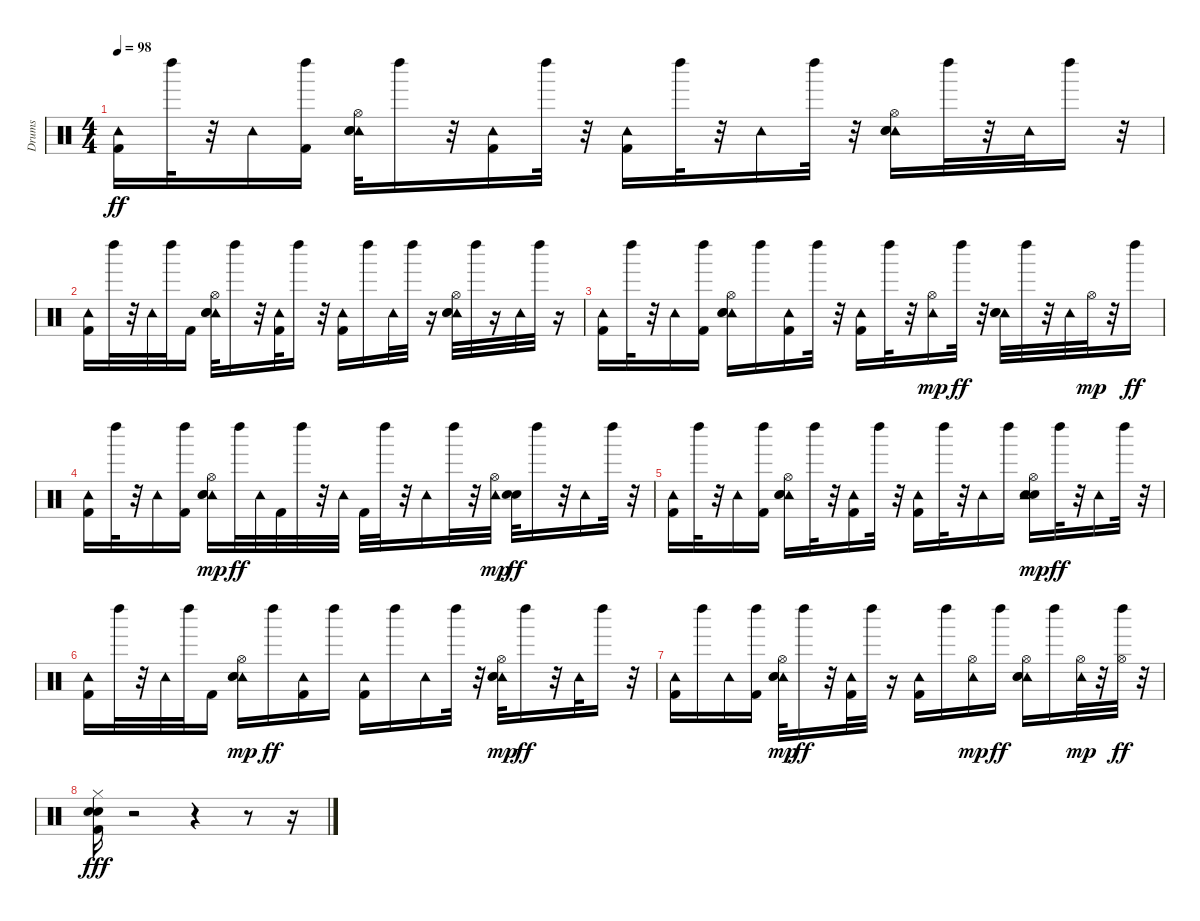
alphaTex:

\track ("Drums" "Drums") {instrument percussion}
\staff {score}
\articulation defaults
\ts (4 4)
\tempo 98
\clef neutral
\ks c
("Tambourine (hit)" "Kick (hit) 2").16{dy ff} "Left Maraca (hit)".32 r.32 "Tambourine (hit)".16 ("Left Maraca (hit)" "Kick (hit) 2").16 ("Tambourine (hit)" "Hi-Hat (open)" "Snare (hit) 2" "Electric Snare (hit)").32 "Left Maraca (hit)".16 r.32 ("Tambourine (hit)" "Kick (hit) 2").16 "Left Maraca (hit)".32 r.32 ("Tambourine (hit)" "Kick (hit) 2").16 "Left Maraca (hit)".32 r.32 "Tambourine (hit)".16 "Left Maraca (hit)".32 r.32 ("Tambourine (hit)" "Hi-Hat (open)" "Electric Snare (hit)" "Snare (hit) 2").16 "Left Maraca (hit)".32 r.32 "Tambourine (hit)".32 "Left Maraca (hit)".16 r.32 |
("Tambourine (hit)" "Kick (hit) 2").16 "Left Maraca (hit)".32 r.32 "Tambourine (hit)".32 "Left Maraca (hit)".32 "Kick (hit) 2".16 ("Tambourine (hit)" "Hi-Hat (open)" "Snare (hit) 2" "Electric Snare (hit)").32 "Left Maraca (hit)".16 r.32 ("Tambourine (hit)" "Kick (hit) 2").32 "Left Maraca (hit)".16 r.32 ("Tambourine (hit)" "Kick (hit) 2").16 "Left Maraca (hit)".16 "Tambourine (hit)".32 "Left Maraca (hit)".32 r.16 ("Tambourine (hit)" "Hi-Hat (open)" "Electric Snare (hit)" "Snare (hit) 2").32 "Left Maraca (hit)".32 r.16 "Tambourine (hit)".32 "Left Maraca (hit)".32 r.16 |
("Tambourine (hit)" "Kick (hit) 2").16 "Left Maraca (hit)".32 r.32 "Tambourine (hit)".16 ("Left Maraca (hit)" "Kick (hit) 2").16 ("Tambourine (hit)" "Snare (hit) 2" "Hi-Hat (open)" "Electric Snare (hit)").16 "Left Maraca (hit)".16 ("Kick (hit) 2" "Tambourine (hit)").16 "Left Maraca (hit)".32 r.32 ("Kick (hit) 2" "Tambourine (hit)").16 "Left Maraca (hit)".32 r.32 ("Tambourine (hit)" "Hi-Hat (open)").16{dy mp} "Left Maraca (hit)".32{dy ff} r.32 ("Tambourine (hit)" "Electric Snare (hit)" "Snare (hit) 2").32 "Left Maraca (hit)".32 r.32 "Tambourine (hit)".32 "Hi-Hat (open)".32{dy mp} r.32 "Left Maraca (hit)".16{dy ff} |
("Tambourine (hit)" "Kick (hit) 2").16 "Left Maraca (hit)".32 r.32 "Tambourine (hit)".16 ("Left Maraca (hit)" "Kick (hit) 2").16 ("Tambourine (hit)" "Electric Snare (hit)" "Snare (hit) 2" "Hi-Hat (open)").16{dy mp} "Left Maraca (hit)".32{dy ff} "Tambourine (hit)".32 "Kick (hit) 2".32 "Left Maraca (hit)".32 r.32 "Tambourine (hit)".32 "Kick (hit) 2".32 "Left Maraca (hit)".32 r.32 "Tambourine (hit)".16 "Left Maraca (hit)".32 r.32 ("Tambourine (hit)" "Hi-Hat (open)").32{dy mp} ("Snare (hit) 2" "Electric Snare (hit)").32{dy ff} "Left Maraca (hit)".16 r.32 "Tambourine (hit)".16 "Left Maraca (hit)".32 r.32 |
("Tambourine (hit)" "Kick (hit) 2").16 "Left Maraca (hit)".32 r.32 "Tambourine (hit)".16 ("Left Maraca (hit)" "Kick (hit) 2").16 ("Tambourine (hit)" "Hi-Hat (open)" "Snare (hit) 2" "Electric Snare (hit)").16 "Left Maraca (hit)".32 r.32 ("Tambourine (hit)" "Kick (hit) 2").16 "Left Maraca (hit)".32 r.32 ("Kick (hit) 2" "Tambourine (hit)").16 "Left Maraca (hit)".32 r.32 "Tambourine (hit)".16 "Left Maraca (hit)".16 ("Electric Snare (hit)" "Tambourine (hit)" "Snare (hit) 2" "Hi-Hat (open)").16{dy mp} "Left Maraca (hit)".32{dy ff} r.32 "Tambourine (hit)".16 "Left Maraca (hit)".32 r.32 |
("Tambourine (hit)" "Kick (hit) 2").16 "Left Maraca (hit)".32 r.32 "Tambourine (hit)".32 "Left Maraca (hit)".32 "Kick (hit) 2".16 ("Tambourine (hit)" "Electric Snare (hit)" "Snare (hit) 2" "Hi-Hat (open)").16{dy mp} "Left Maraca (hit)".16{dy ff} ("Tambourine (hit)" "Kick (hit) 2").16 "Left Maraca (hit)".16 ("Tambourine (hit)" "Kick (hit) 2").16 "Left Maraca (hit)".16 "Tambourine (hit)".16 "Left Maraca (hit)".32 r.32 ("Tambourine (hit)" "Electric Snare (hit)" "Snare (hit) 2" "Hi-Hat (open)").32{dy mp} "Left Maraca (hit)".16{dy ff} r.32 "Tambourine (hit)".32 "Left Maraca (hit)".16 r.32 |
("Tambourine (hit)" "Kick (hit) 2").16 "Left Maraca (hit)".16 "Tambourine (hit)".16 ("Left Maraca (hit)" "Kick (hit) 2").16 ("Tambourine (hit)" "Electric Snare (hit)" "Snare (hit) 2" "Hi-Hat (open)").32{dy mp} "Left Maraca (hit)".16{dy ff} r.32 ("Tambourine (hit)" "Kick (hit) 2").32 "Left Maraca (hit)".32 r.16 ("Tambourine (hit)" "Kick (hit) 2").16 "Left Maraca (hit)".16 ("Tambourine (hit)" "Hi-Hat (open)").16{dy mp} "Left Maraca (hit)".16{dy ff} ("Tambourine (hit)" "Snare (hit) 2" "Hi-Hat (open)" "Electric Snare (hit)").16 "Left Maraca (hit)".16 ("Tambourine (hit)" "Hi-Hat (open)").32{dy mp} r.32 ("Hi-Hat (open)" "Left Maraca (hit)").32{dy ff} r.32 |
("Hi-Hat (closed)" "Electric Snare (hit)" "Snare (hit) 2" "Kick (hit) 2").16{dy fff} r.2 r.4 r.8 r.16
